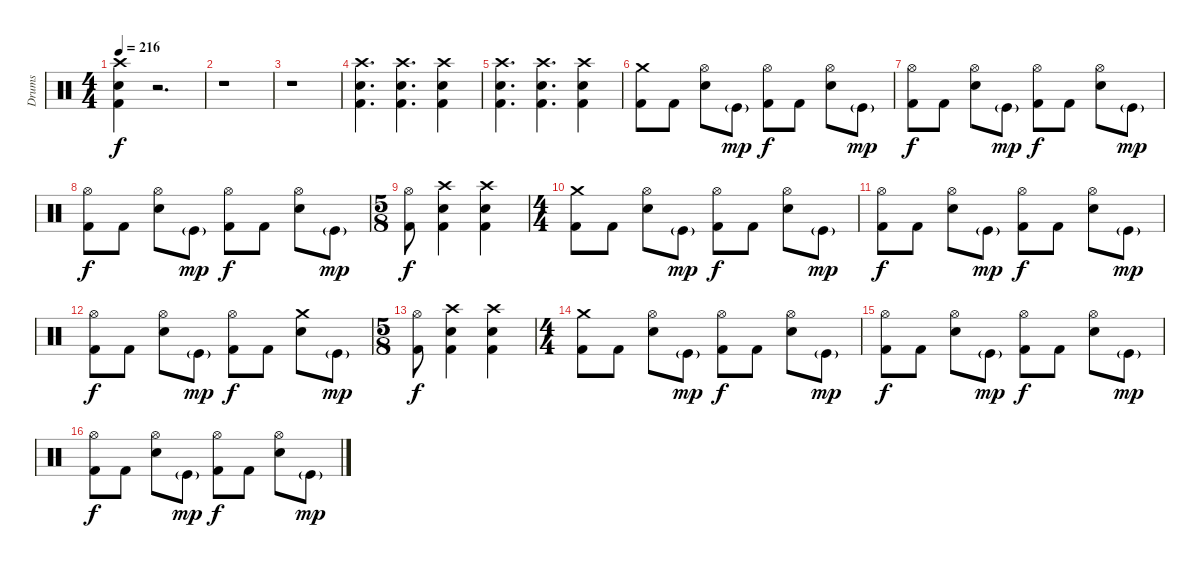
\track ("Drums" "Drums") {instrument percussion}
\staff {score}
\articulation defaults
\ts (4 4)
\tempo 216
\clef neutral
\ks c
("Crash high (hit)" "Snare (hit) 2" "Kick (hit) 2").4{dy f} r.2{d} |
r.1 |
r.1 |
("Crash high (hit)" "Snare (hit) 2" "Kick (hit) 2").4{d} ("Crash high (hit)" "Snare (hit) 2" "Kick (hit) 2").4{d} ("Crash high (hit)" "Snare (hit) 2" "Kick (hit) 2").4 |
("Crash high (hit)" "Snare (hit) 2" "Kick (hit) 2").4{d} ("Crash high (hit)" "Snare (hit) 2" "Kick (hit) 2").4{d} ("Crash high (hit)" "Snare (hit) 2" "Kick (hit) 2").4 |
("Crash medium (hit)" "Kick (hit) 2").8 "Kick (hit) 2".8 ("Hi-Hat (open)" "Snare (hit) 2").8 "Kick (hit)"{g}.8{dy mp} ("Hi-Hat (open)" "Kick (hit) 2").8{dy f} "Kick (hit) 2".8 ("Hi-Hat (open)" "Snare (hit) 2").8 "Kick (hit)"{g}.8{dy mp} |
("Hi-Hat (open)" "Kick (hit) 2").8{dy f} "Kick (hit) 2".8 ("Hi-Hat (open)" "Snare (hit) 2").8 "Kick (hit)"{g}.8{dy mp} ("Hi-Hat (open)" "Kick (hit) 2").8{dy f} "Kick (hit) 2".8 ("Hi-Hat (open)" "Snare (hit) 2").8 "Kick (hit)"{g}.8{dy mp} |
("Hi-Hat (open)" "Kick (hit) 2").8{dy f} "Kick (hit) 2".8 ("Hi-Hat (open)" "Snare (hit) 2").8 "Kick (hit)"{g}.8{dy mp} ("Hi-Hat (open)" "Kick (hit) 2").8{dy f} "Kick (hit) 2".8 ("Hi-Hat (open)" "Snare (hit) 2").8 "Kick (hit)"{g}.8{dy mp} |
\ts (5 8)
("Hi-Hat (open)" "Kick (hit) 2").8{dy f} ("Crash high (hit)" "Snare (hit) 2" "Kick (hit) 2").4 ("Crash high (hit)" "Snare (hit) 2" "Kick (hit) 2").4 |
\ts (4 4)
("Crash medium (hit)" "Kick (hit) 2").8 "Kick (hit) 2".8 ("Hi-Hat (open)" "Snare (hit) 2").8 "Kick (hit)"{g}.8{dy mp} ("Hi-Hat (open)" "Kick (hit) 2").8{dy f} "Kick (hit) 2".8 ("Hi-Hat (open)" "Snare (hit) 2").8 "Kick (hit)"{g}.8{dy mp} |
("Hi-Hat (open)" "Kick (hit) 2").8{dy f} "Kick (hit) 2".8 ("Hi-Hat (open)" "Snare (hit) 2").8 "Kick (hit)"{g}.8{dy mp} ("Hi-Hat (open)" "Kick (hit) 2").8{dy f} "Kick (hit) 2".8 ("Hi-Hat (open)" "Snare (hit) 2").8 "Kick (hit)"{g}.8{dy mp} |
("Hi-Hat (open)" "Kick (hit) 2").8{dy f} "Kick (hit) 2".8 ("Hi-Hat (open)" "Snare (hit) 2").8 "Kick (hit)"{g}.8{dy mp} ("Hi-Hat (open)" "Kick (hit) 2").8{dy f} "Kick (hit) 2".8 ("Crash medium (hit)" "Snare (hit) 2").8 "Kick (hit)"{g}.8{dy mp} |
\ts (5 8)
("Hi-Hat (open)" "Kick (hit) 2").8{dy f} ("Crash high (hit)" "Snare (hit) 2" "Kick (hit) 2").4 ("Crash high (hit)" "Snare (hit) 2" "Kick (hit) 2").4 |
\ts (4 4)
("Crash medium (hit)" "Kick (hit) 2").8 "Kick (hit) 2".8 ("Hi-Hat (open)" "Snare (hit) 2").8 "Kick (hit)"{g}.8{dy mp} ("Hi-Hat (open)" "Kick (hit) 2").8{dy f} "Kick (hit) 2".8 ("Hi-Hat (open)" "Snare (hit) 2").8 "Kick (hit)"{g}.8{dy mp} |
("Hi-Hat (open)" "Kick (hit) 2").8{dy f} "Kick (hit) 2".8 ("Hi-Hat (open)" "Snare (hit) 2").8 "Kick (hit)"{g}.8{dy mp} ("Hi-Hat (open)" "Kick (hit) 2").8{dy f} "Kick (hit) 2".8 ("Hi-Hat (open)" "Snare (hit) 2").8 "Kick (hit)"{g}.8{dy mp} |
("Hi-Hat (open)" "Kick (hit) 2").8{dy f} "Kick (hit) 2".8 ("Hi-Hat (open)" "Snare (hit) 2").8 "Kick (hit)"{g}.8{dy mp} ("Hi-Hat (open)" "Kick (hit) 2").8{dy f} "Kick (hit) 2".8 ("Hi-Hat (open)" "Snare (hit) 2").8 "Kick (hit)"{g}.8{dy mp}
